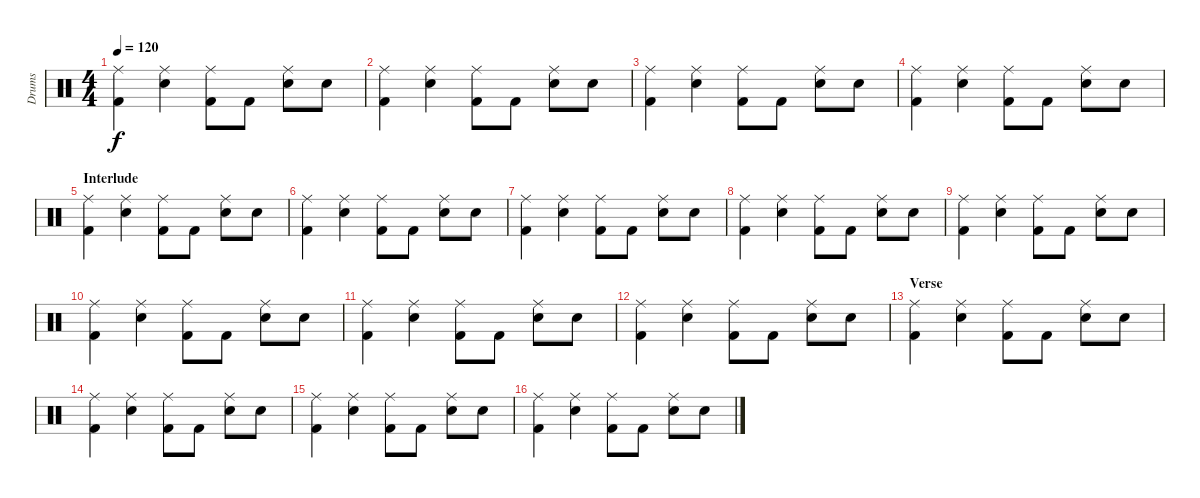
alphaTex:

\track ("Drums" "Drums") {instrument percussion}
\staff {score}
\articulation defaults
\ts (4 4)
\tempo 120
\clef neutral
\ks c
("Ride (middle)" "Kick (hit) 2").4{dy f} ("Ride (middle)" "Snare (hit) 2").4 ("Ride (middle)" "Kick (hit) 2").8 "Kick (hit) 2".8 ("Ride (middle)" "Snare (hit) 2").8 "Snare (hit) 2".8 |
("Ride (middle)" "Kick (hit) 2").4 ("Ride (middle)" "Snare (hit) 2").4 ("Ride (middle)" "Kick (hit) 2").8 "Kick (hit) 2".8 ("Ride (middle)" "Snare (hit) 2").8 "Snare (hit) 2".8 |
("Ride (middle)" "Kick (hit) 2").4 ("Ride (middle)" "Snare (hit) 2").4 ("Ride (middle)" "Kick (hit) 2").8 "Kick (hit) 2".8 ("Ride (middle)" "Snare (hit) 2").8 "Snare (hit) 2".8 |
("Ride (middle)" "Kick (hit) 2").4 ("Ride (middle)" "Snare (hit) 2").4 ("Ride (middle)" "Kick (hit) 2").8 "Kick (hit) 2".8 ("Ride (middle)" "Snare (hit) 2").8 "Snare (hit) 2".8 |
\section ("" "Interlude")
("Ride (middle)" "Kick (hit) 2").4 ("Ride (middle)" "Snare (hit) 2").4 ("Ride (middle)" "Kick (hit) 2").8 "Kick (hit) 2".8 ("Ride (middle)" "Snare (hit) 2").8 "Snare (hit) 2".8 |
("Ride (middle)" "Kick (hit) 2").4 ("Ride (middle)" "Snare (hit) 2").4 ("Ride (middle)" "Kick (hit) 2").8 "Kick (hit) 2".8 ("Ride (middle)" "Snare (hit) 2").8 "Snare (hit) 2".8 |
("Ride (middle)" "Kick (hit) 2").4 ("Ride (middle)" "Snare (hit) 2").4 ("Ride (middle)" "Kick (hit) 2").8 "Kick (hit) 2".8 ("Ride (middle)" "Snare (hit) 2").8 "Snare (hit) 2".8 |
("Ride (middle)" "Kick (hit) 2").4 ("Ride (middle)" "Snare (hit) 2").4 ("Ride (middle)" "Kick (hit) 2").8 "Kick (hit) 2".8 ("Ride (middle)" "Snare (hit) 2").8 "Snare (hit) 2".8 |
("Ride (middle)" "Kick (hit) 2").4 ("Ride (middle)" "Snare (hit) 2").4 ("Ride (middle)" "Kick (hit) 2").8 "Kick (hit) 2".8 ("Ride (middle)" "Snare (hit) 2").8 "Snare (hit) 2".8 |
("Ride (middle)" "Kick (hit) 2").4 ("Ride (middle)" "Snare (hit) 2").4 ("Ride (middle)" "Kick (hit) 2").8 "Kick (hit) 2".8 ("Ride (middle)" "Snare (hit) 2").8 "Snare (hit) 2".8 |
("Ride (middle)" "Kick (hit) 2").4 ("Ride (middle)" "Snare (hit) 2").4 ("Ride (middle)" "Kick (hit) 2").8 "Kick (hit) 2".8 ("Ride (middle)" "Snare (hit) 2").8 "Snare (hit) 2".8 |
("Ride (middle)" "Kick (hit) 2").4 ("Ride (middle)" "Snare (hit) 2").4 ("Ride (middle)" "Kick (hit) 2").8 "Kick (hit) 2".8 ("Ride (middle)" "Snare (hit) 2").8 "Snare (hit) 2".8 |
\section ("" "Verse")
("Ride (middle)" "Kick (hit) 2").4 ("Ride (middle)" "Snare (hit) 2").4 ("Ride (middle)" "Kick (hit) 2").8 "Kick (hit) 2".8 ("Ride (middle)" "Snare (hit) 2").8 "Snare (hit) 2".8 |
("Ride (middle)" "Kick (hit) 2").4 ("Ride (middle)" "Snare (hit) 2").4 ("Ride (middle)" "Kick (hit) 2").8 "Kick (hit) 2".8 ("Ride (middle)" "Snare (hit) 2").8 "Snare (hit) 2".8 |
("Ride (middle)" "Kick (hit) 2").4 ("Ride (middle)" "Snare (hit) 2").4 ("Ride (middle)" "Kick (hit) 2").8 "Kick (hit) 2".8 ("Ride (middle)" "Snare (hit) 2").8 "Snare (hit) 2".8 |
("Ride (middle)" "Kick (hit) 2").4 ("Ride (middle)" "Snare (hit) 2").4 ("Ride (middle)" "Kick (hit) 2").8 "Kick (hit) 2".8 ("Ride (middle)" "Snare (hit) 2").8 "Snare (hit) 2".8
